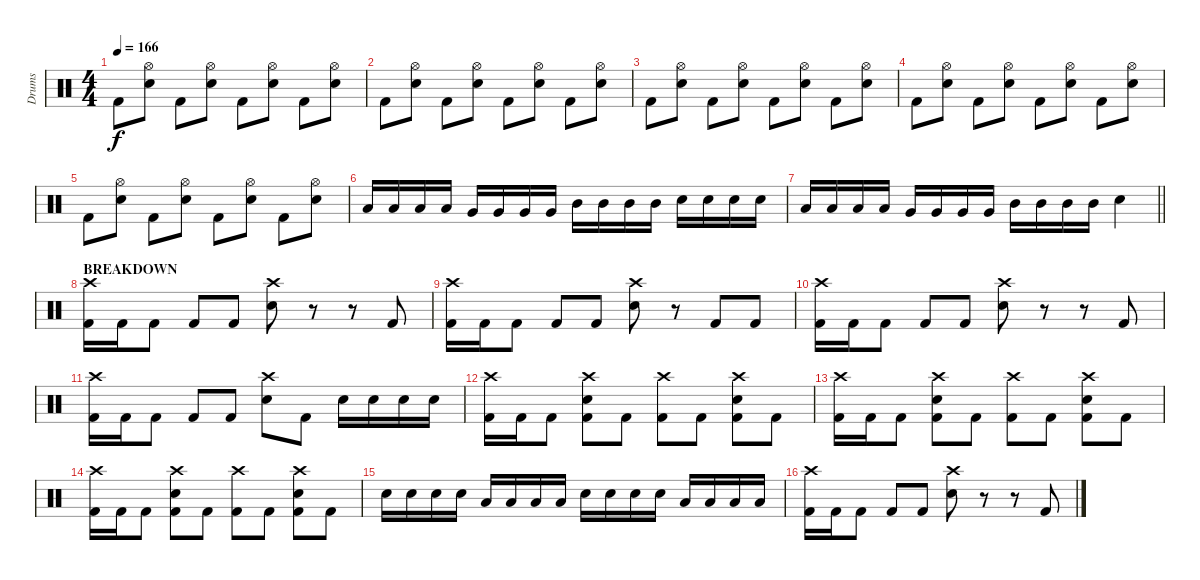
\track ("Drums" "Drums") {instrument percussion}
\staff {score}
\articulation defaults
\ts (4 4)
\tempo 166
\clef neutral
\ks c "Kick (hit) 2".8{dy f}
("Hi-Hat (open)" "Snare (hit) 2").8 "Kick (hit) 2".8 ("Hi-Hat (open)" "Snare (hit) 2").8 "Kick (hit) 2".8 ("Hi-Hat (open)" "Snare (hit) 2").8 "Kick (hit) 2".8 ("Hi-Hat (open)" "Snare (hit) 2").8 |
"Kick (hit) 2".8 ("Hi-Hat (open)" "Snare (hit) 2").8 "Kick (hit) 2".8 ("Hi-Hat (open)" "Snare (hit) 2").8 "Kick (hit) 2".8 ("Hi-Hat (open)" "Snare (hit) 2").8 "Kick (hit) 2".8 ("Hi-Hat (open)" "Snare (hit) 2").8 |
"Kick (hit) 2".8 ("Hi-Hat (open)" "Snare (hit) 2").8 "Kick (hit) 2".8 ("Hi-Hat (open)" "Snare (hit) 2").8 "Kick (hit) 2".8 ("Hi-Hat (open)" "Snare (hit) 2").8 "Kick (hit) 2".8 ("Hi-Hat (open)" "Snare (hit) 2").8 |
"Kick (hit) 2".8 ("Hi-Hat (open)" "Snare (hit) 2").8 "Kick (hit) 2".8 ("Hi-Hat (open)" "Snare (hit) 2").8 "Kick (hit) 2".8 ("Hi-Hat (open)" "Snare (hit) 2").8 "Kick (hit) 2".8 ("Hi-Hat (open)" "Snare (hit) 2").8 |
"Kick (hit) 2".8 ("Hi-Hat (open)" "Snare (hit) 2").8 "Kick (hit) 2".8 ("Hi-Hat (open)" "Snare (hit) 2").8 "Kick (hit) 2".8 ("Hi-Hat (open)" "Snare (hit) 2").8 "Kick (hit) 2".8 ("Hi-Hat (open)" "Snare (hit) 2").8 |
"Low Tom (hit)".16 "Low Tom (hit)".16 "Low Tom (hit)".16 "Low Tom (hit)".16 "Very Low Tom (hit)".16 "Very Low Tom (hit)".16 "Very Low Tom (hit)".16 "Very Low Tom (hit)".16 "Mid Tom (hit)".16 "Mid Tom (hit)".16 "Mid Tom (hit)".16 "Mid Tom (hit)".16 "Snare (hit) 2".16 "Snare (hit) 2".16 "Snare (hit) 2".16 "Snare (hit) 2".16 |
\barLineRight lightlight "Low Tom (hit)".16 "Low Tom (hit)".16 "Low Tom (hit)".16 "Low Tom (hit)".16 "Very Low Tom (hit)".16 "Very Low Tom (hit)".16 "Very Low Tom (hit)".16 "Very Low Tom (hit)".16 "Mid Tom (hit)".16 "Mid Tom (hit)".16 "Mid Tom (hit)".16 "Mid Tom (hit)".16 "Snare (hit) 2".4
|
\section ("" "BREAKDOWN")
("Crash high (hit)" "Kick (hit) 2").16 "Kick (hit) 2".16 "Kick (hit) 2".8 "Kick (hit) 2".8 "Kick (hit) 2".8 ("Crash high (hit)" "Snare (hit) 2").8 r.8 r.8 "Kick (hit) 2".8 |
("Crash high (hit)" "Kick (hit) 2").16 "Kick (hit) 2".16 "Kick (hit) 2".8 "Kick (hit) 2".8 "Kick (hit) 2".8 ("Crash high (hit)" "Snare (hit) 2").8 r.8 "Kick (hit) 2".8 "Kick (hit) 2".8 |
("Crash high (hit)" "Kick (hit) 2").16 "Kick (hit) 2".16 "Kick (hit) 2".8 "Kick (hit) 2".8 "Kick (hit) 2".8 ("Crash high (hit)" "Snare (hit) 2").8 r.8 r.8 "Kick (hit) 2".8 |
("Crash high (hit)" "Kick (hit) 2").16 "Kick (hit) 2".16 "Kick (hit) 2".8 "Kick (hit) 2".8 "Kick (hit) 2".8 ("Crash high (hit)" "Snare (hit) 2").8 "Kick (hit) 2".8 "Snare (hit) 2".16 "Snare (hit) 2".16 "Snare (hit) 2".16 "Snare (hit) 2".16 |
("Crash high (hit)" "Kick (hit) 2").16 "Kick (hit) 2".16 "Kick (hit) 2".8 ("Crash high (hit)" "Snare (hit) 2" "Kick (hit) 2").8 "Kick (hit) 2".8 ("Crash high (hit)" "Kick (hit) 2").8 "Kick (hit) 2".8 ("Crash high (hit)" "Snare (hit) 2" "Kick (hit) 2").8 "Kick (hit) 2".8 |
("Crash high (hit)" "Kick (hit) 2").16 "Kick (hit) 2".16 "Kick (hit) 2".8 ("Crash high (hit)" "Snare (hit) 2" "Kick (hit) 2").8 "Kick (hit) 2".8 ("Crash high (hit)" "Kick (hit) 2").8 "Kick (hit) 2".8 ("Crash high (hit)" "Snare (hit) 2" "Kick (hit) 2").8 "Kick (hit) 2".8 |
("Crash high (hit)" "Kick (hit) 2").16 "Kick (hit) 2".16 "Kick (hit) 2".8 ("Crash high (hit)" "Snare (hit) 2" "Kick (hit) 2").8 "Kick (hit) 2".8 ("Crash high (hit)" "Kick (hit) 2").8 "Kick (hit) 2".8 ("Crash high (hit)" "Snare (hit) 2" "Kick (hit) 2").8 "Kick (hit) 2".8 |
"Snare (hit) 2".16 "Snare (hit) 2".16 "Snare (hit) 2".16 "Snare (hit) 2".16 "Low Tom (hit)".16 "Low Tom (hit)".16 "Low Tom (hit)".16 "Low Tom (hit)".16 "Snare (hit) 2".16 "Snare (hit) 2".16 "Snare (hit) 2".16 "Snare (hit) 2".16 "Low Tom (hit)".16 "Low Tom (hit)".16 "Low Tom (hit)".16 "Low Tom (hit)".16 |
("Crash high (hit)" "Kick (hit) 2").16 "Kick (hit) 2".16 "Kick (hit) 2".8 "Kick (hit) 2".8 "Kick (hit) 2".8 ("Crash high (hit)" "Snare (hit) 2").8 r.8 r.8 "Kick (hit) 2".8
